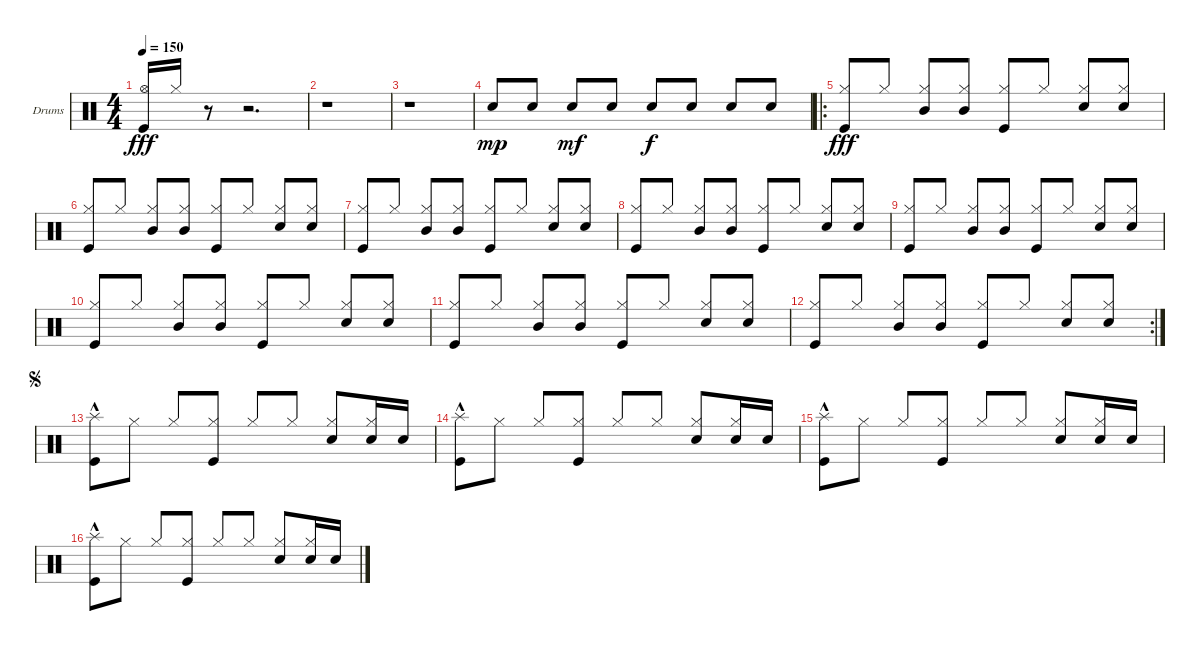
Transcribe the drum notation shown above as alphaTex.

\defaultSystemsLayout 4
\bracketExtendMode groupsimilarinstruments
\firstSystemTrackNameOrientation horizontal
\otherSystemsTrackNameOrientation horizontal
\track ("Drumkit" "Drums") {instrument percussion}
\staff {score}
\articulation defaults
\ts (4 4)
\tempo 150
\clef neutral
\ks c
("Kick (hit)" "Hi-Hat (open)").16{dy fff beam invert} "Hi-Hat (closed)".16 r.8 r.2{d} |
r.1 |
r.1 |
"Snare (hit) 2".8{dy mp beam invert} "Snare (hit) 2".8 "Snare (hit) 2".8{dy mf beam invert} "Snare (hit) 2".8 "Snare (hit) 2".8{dy f beam invert} "Snare (hit) 2".8 "Snare (hit) 2".8{beam invert} "Snare (hit) 2".8 |
\ro
("Kick (hit)" "Hi-Hat (closed)").8{dy fff beam invert} "Hi-Hat (closed)".8 ("Mid Tom (hit)" "Hi-Hat (closed)").8{beam invert} ("Mid Tom (hit)" "Hi-Hat (closed)").8 ("Hi-Hat (closed)" "Kick (hit)").8{beam invert} "Hi-Hat (closed)".8 ("Snare (hit) 2" "Hi-Hat (closed)").8{beam invert} ("Snare (hit) 2" "Hi-Hat (closed)").8 |
("Kick (hit)" "Hi-Hat (closed)").8{beam invert} "Hi-Hat (closed)".8 ("Mid Tom (hit)" "Hi-Hat (closed)").8{beam invert} ("Mid Tom (hit)" "Hi-Hat (closed)").8 ("Hi-Hat (closed)" "Kick (hit)").8{beam invert} "Hi-Hat (closed)".8 ("Snare (hit) 2" "Hi-Hat (closed)").8{beam invert} ("Snare (hit) 2" "Hi-Hat (closed)").8 |
("Kick (hit)" "Hi-Hat (closed)").8{beam invert} "Hi-Hat (closed)".8 ("Mid Tom (hit)" "Hi-Hat (closed)").8{beam invert} ("Mid Tom (hit)" "Hi-Hat (closed)").8 ("Hi-Hat (closed)" "Kick (hit)").8{beam invert} "Hi-Hat (closed)".8 ("Snare (hit) 2" "Hi-Hat (closed)").8{beam invert} ("Snare (hit) 2" "Hi-Hat (closed)").8 |
("Kick (hit)" "Hi-Hat (closed)").8{beam invert} "Hi-Hat (closed)".8 ("Mid Tom (hit)" "Hi-Hat (closed)").8{beam invert} ("Mid Tom (hit)" "Hi-Hat (closed)").8 ("Hi-Hat (closed)" "Kick (hit)").8{beam invert} "Hi-Hat (closed)".8 ("Snare (hit) 2" "Hi-Hat (closed)").8{beam invert} ("Snare (hit) 2" "Hi-Hat (closed)").8 |
("Kick (hit)" "Hi-Hat (closed)").8{beam invert} "Hi-Hat (closed)".8 ("Mid Tom (hit)" "Hi-Hat (closed)").8{beam invert} ("Mid Tom (hit)" "Hi-Hat (closed)").8 ("Hi-Hat (closed)" "Kick (hit)").8{beam invert} "Hi-Hat (closed)".8 ("Snare (hit) 2" "Hi-Hat (closed)").8{beam invert} ("Snare (hit) 2" "Hi-Hat (closed)").8 |
("Kick (hit)" "Hi-Hat (closed)").8{beam invert} "Hi-Hat (closed)".8 ("Mid Tom (hit)" "Hi-Hat (closed)").8{beam invert} ("Mid Tom (hit)" "Hi-Hat (closed)").8 ("Hi-Hat (closed)" "Kick (hit)").8{beam invert} "Hi-Hat (closed)".8 ("Snare (hit) 2" "Hi-Hat (closed)").8{beam invert} ("Snare (hit) 2" "Hi-Hat (closed)").8 |
("Kick (hit)" "Hi-Hat (closed)").8{beam invert} "Hi-Hat (closed)".8 ("Mid Tom (hit)" "Hi-Hat (closed)").8{beam invert} ("Mid Tom (hit)" "Hi-Hat (closed)").8 ("Hi-Hat (closed)" "Kick (hit)").8{beam invert} "Hi-Hat (closed)".8 ("Snare (hit) 2" "Hi-Hat (closed)").8{beam invert} ("Snare (hit) 2" "Hi-Hat (closed)").8 |
\rc 2
("Kick (hit)" "Hi-Hat (closed)").8{beam invert} "Hi-Hat (closed)".8 ("Mid Tom (hit)" "Hi-Hat (closed)").8{beam invert} ("Mid Tom (hit)" "Hi-Hat (closed)").8 ("Hi-Hat (closed)" "Kick (hit)").8{beam invert} "Hi-Hat (closed)".8 ("Snare (hit) 2" "Hi-Hat (closed)").8{beam invert} ("Snare (hit) 2" "Hi-Hat (closed)").8 |
\jump segno
("Kick (hit)" "Splash (hit)"{hac}).8 "Hi-Hat (closed)".8 "Hi-Hat (closed)".8 ("Hi-Hat (closed)" "Kick (hit)").8 "Hi-Hat (closed)".8{beam invert} "Hi-Hat (closed)".8 ("Hi-Hat (closed)" "Snare (hit) 2").8{beam invert} ("Hi-Hat (closed)" "Snare (hit) 2").16 "Snare (hit) 2".16 |
("Kick (hit)" "Splash (hit)"{hac}).8 "Hi-Hat (closed)".8 "Hi-Hat (closed)".8 ("Hi-Hat (closed)" "Kick (hit)").8 "Hi-Hat (closed)".8{beam invert} "Hi-Hat (closed)".8 ("Hi-Hat (closed)" "Snare (hit) 2").8{beam invert} ("Hi-Hat (closed)" "Snare (hit) 2").16 "Snare (hit) 2".16 |
("Kick (hit)" "Splash (hit)"{hac}).8 "Hi-Hat (closed)".8 "Hi-Hat (closed)".8 ("Hi-Hat (closed)" "Kick (hit)").8 "Hi-Hat (closed)".8{beam invert} "Hi-Hat (closed)".8 ("Hi-Hat (closed)" "Snare (hit) 2").8{beam invert} ("Hi-Hat (closed)" "Snare (hit) 2").16 "Snare (hit) 2".16 |
("Kick (hit)" "Splash (hit)"{hac}).8 "Hi-Hat (closed)".8 "Hi-Hat (closed)".8 ("Hi-Hat (closed)" "Kick (hit)").8 "Hi-Hat (closed)".8{beam invert} "Hi-Hat (closed)".8 ("Hi-Hat (closed)" "Snare (hit) 2").8{beam invert} ("Hi-Hat (closed)" "Snare (hit) 2").16 "Snare (hit) 2".16
